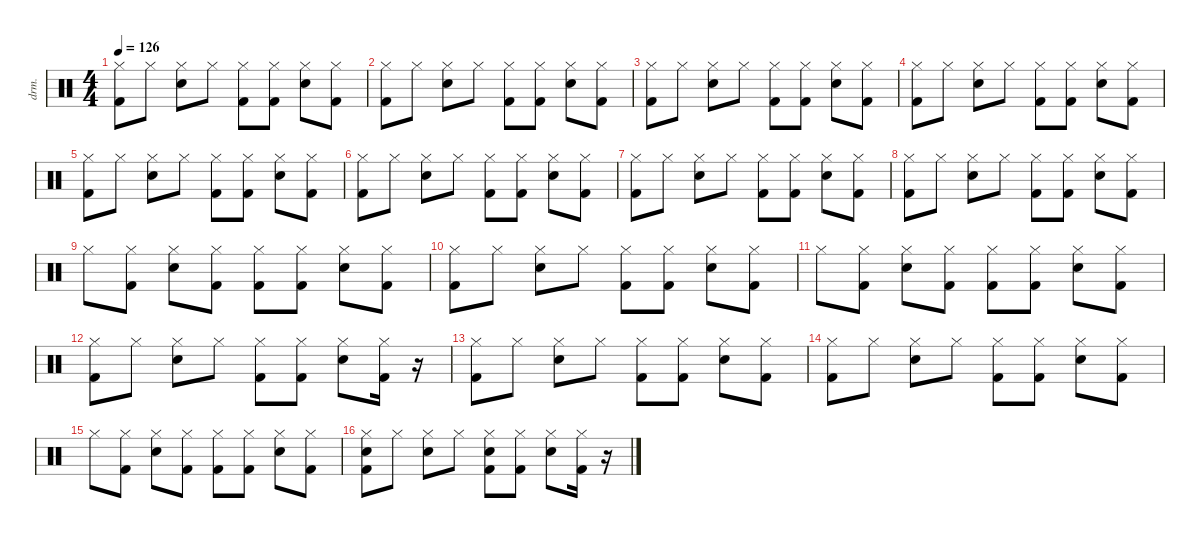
\defaultSystemsLayout 4
\hideDynamics
\bracketExtendMode nobrackets
\otherSystemsTrackNameOrientation horizontal
\track ("Drums" "drm.") {instrument percussion}
\staff {score}
\articulation defaults
\ts (4 4)
\tempo 126
\clef neutral
\ks c
("Kick (hit) 2" "Hi-Hat (closed)").8{dy f beam Down} "Hi-Hat (closed)".8{beam Down} ("Snare (hit) 2" "Hi-Hat (closed)").8{beam Down} "Hi-Hat (closed)".8{beam Down} ("Hi-Hat (closed)" "Kick (hit) 2").8{beam Down} ("Hi-Hat (closed)" "Kick (hit) 2").8{beam Down} ("Snare (hit) 2" "Hi-Hat (closed)").8{beam Down} ("Kick (hit) 2" "Hi-Hat (closed)").8{beam Down} |
("Kick (hit) 2" "Hi-Hat (closed)").8{beam Down} "Hi-Hat (closed)".8{beam Down} ("Snare (hit) 2" "Hi-Hat (closed)").8{beam Down} "Hi-Hat (closed)".8{beam Down} ("Hi-Hat (closed)" "Kick (hit) 2").8{beam Down} ("Hi-Hat (closed)" "Kick (hit) 2").8{beam Down} ("Snare (hit) 2" "Hi-Hat (closed)").8{beam Down} ("Kick (hit) 2" "Hi-Hat (closed)").8{beam Down} |
("Kick (hit) 2" "Hi-Hat (closed)").8{beam Down} "Hi-Hat (closed)".8{beam Down} ("Snare (hit) 2" "Hi-Hat (closed)").8{beam Down} "Hi-Hat (closed)".8{beam Down} ("Hi-Hat (closed)" "Kick (hit) 2").8{beam Down} ("Hi-Hat (closed)" "Kick (hit) 2").8{beam Down} ("Snare (hit) 2" "Hi-Hat (closed)").8{beam Down} ("Kick (hit) 2" "Hi-Hat (closed)").8{beam Down} |
("Kick (hit) 2" "Hi-Hat (closed)").8{beam Down} "Hi-Hat (closed)".8{beam Down} ("Snare (hit) 2" "Hi-Hat (closed)").8{beam Down} "Hi-Hat (closed)".8{beam Down} ("Hi-Hat (closed)" "Kick (hit) 2").8{beam Down} ("Hi-Hat (closed)" "Kick (hit) 2").8{beam Down} ("Snare (hit) 2" "Hi-Hat (closed)").8{beam Down} ("Kick (hit) 2" "Hi-Hat (closed)").8{beam Down} |
("Kick (hit) 2" "Hi-Hat (closed)").8{beam Down} "Hi-Hat (closed)".8{beam Down} ("Snare (hit) 2" "Hi-Hat (closed)").8{beam Down} "Hi-Hat (closed)".8{beam Down} ("Hi-Hat (closed)" "Kick (hit) 2").8{beam Down} ("Hi-Hat (closed)" "Kick (hit) 2").8{beam Down} ("Snare (hit) 2" "Hi-Hat (closed)").8{beam Down} ("Kick (hit) 2" "Hi-Hat (closed)").8{beam Down} |
("Kick (hit) 2" "Hi-Hat (closed)").8{beam Down} "Hi-Hat (closed)".8{beam Down} ("Snare (hit) 2" "Hi-Hat (closed)").8{beam Down} "Hi-Hat (closed)".8{beam Down} ("Hi-Hat (closed)" "Kick (hit) 2").8{beam Down} ("Hi-Hat (closed)" "Kick (hit) 2").8{beam Down} ("Snare (hit) 2" "Hi-Hat (closed)").8{beam Down} ("Kick (hit) 2" "Hi-Hat (closed)").8{beam Down} |
("Kick (hit) 2" "Hi-Hat (closed)").8{beam Down} "Hi-Hat (closed)".8{beam Down} ("Snare (hit) 2" "Hi-Hat (closed)").8{beam Down} "Hi-Hat (closed)".8{beam Down} ("Hi-Hat (closed)" "Kick (hit) 2").8{beam Down} ("Hi-Hat (closed)" "Kick (hit) 2").8{beam Down} ("Snare (hit) 2" "Hi-Hat (closed)").8{beam Down} ("Kick (hit) 2" "Hi-Hat (closed)").8{beam Down} |
("Kick (hit) 2" "Hi-Hat (closed)").8{beam Down} "Hi-Hat (closed)".8{beam Down} ("Snare (hit) 2" "Hi-Hat (closed)").8{beam Down} "Hi-Hat (closed)".8{beam Down} ("Hi-Hat (closed)" "Kick (hit) 2").8{beam Down} ("Hi-Hat (closed)" "Kick (hit) 2").8{beam Down} ("Snare (hit) 2" "Hi-Hat (closed)").8{beam Down} ("Kick (hit) 2" "Hi-Hat (closed)").8{beam Down} |
"Hi-Hat (closed)".8{beam Down} ("Hi-Hat (closed)" "Kick (hit) 2").8{beam Down} ("Snare (hit) 2" "Hi-Hat (closed)").8{beam Down} ("Kick (hit) 2" "Hi-Hat (closed)").8{beam Down} ("Hi-Hat (closed)" "Kick (hit) 2").8{beam Down} ("Hi-Hat (closed)" "Kick (hit) 2").8{beam Down} ("Snare (hit) 2" "Hi-Hat (closed)").8{beam Down} ("Kick (hit) 2" "Hi-Hat (closed)").8{beam Down} |
("Kick (hit) 2" "Hi-Hat (closed)").8{beam Down} "Hi-Hat (closed)".8{beam Down} ("Snare (hit) 2" "Hi-Hat (closed)").8{beam Down} "Hi-Hat (closed)".8{beam Down} ("Hi-Hat (closed)" "Kick (hit) 2").8{beam Down} ("Hi-Hat (closed)" "Kick (hit) 2").8{beam Down} ("Snare (hit) 2" "Hi-Hat (closed)").8{beam Down} ("Kick (hit) 2" "Hi-Hat (closed)").8{beam Down} |
"Hi-Hat (closed)".8{beam Down} ("Hi-Hat (closed)" "Kick (hit) 2").8{beam Down} ("Snare (hit) 2" "Hi-Hat (closed)").8{beam Down} ("Kick (hit) 2" "Hi-Hat (closed)").8{beam Down} ("Hi-Hat (closed)" "Kick (hit) 2").8{beam Down} ("Hi-Hat (closed)" "Kick (hit) 2").8{beam Down} ("Snare (hit) 2" "Hi-Hat (closed)").8{beam Down} ("Kick (hit) 2" "Hi-Hat (closed)").8{beam Down} |
("Kick (hit) 2" "Hi-Hat (closed)").8{beam Down} "Hi-Hat (closed)".8{beam Down} ("Snare (hit) 2" "Hi-Hat (closed)").8{beam Down} "Hi-Hat (closed)".8{beam Down} ("Hi-Hat (closed)" "Kick (hit) 2").8{beam Down} ("Hi-Hat (closed)" "Kick (hit) 2").8{beam Down} ("Snare (hit) 2" "Hi-Hat (closed)").8{beam Down} ("Kick (hit) 2" "Hi-Hat (closed)").16{beam Down} r.16{beam Down} |
("Kick (hit) 2" "Hi-Hat (closed)").8{beam Down} "Hi-Hat (closed)".8{beam Down} ("Snare (hit) 2" "Hi-Hat (closed)").8{beam Down} "Hi-Hat (closed)".8{beam Down} ("Hi-Hat (closed)" "Kick (hit) 2").8{beam Down} ("Hi-Hat (closed)" "Kick (hit) 2").8{beam Down} ("Snare (hit) 2" "Hi-Hat (closed)").8{beam Down} ("Kick (hit) 2" "Hi-Hat (closed)").8{beam Down} |
("Kick (hit) 2" "Hi-Hat (closed)").8{beam Down} "Hi-Hat (closed)".8{beam Down} ("Snare (hit) 2" "Hi-Hat (closed)").8{beam Down} "Hi-Hat (closed)".8{beam Down} ("Hi-Hat (closed)" "Kick (hit) 2").8{beam Down} ("Hi-Hat (closed)" "Kick (hit) 2").8{beam Down} ("Snare (hit) 2" "Hi-Hat (closed)").8{beam Down} ("Kick (hit) 2" "Hi-Hat (closed)").8{beam Down} |
"Hi-Hat (closed)".8{beam Down} ("Hi-Hat (closed)" "Kick (hit) 2").8{beam Down} ("Snare (hit) 2" "Hi-Hat (closed)").8{beam Down} ("Kick (hit) 2" "Hi-Hat (closed)").8{beam Down} ("Hi-Hat (closed)" "Kick (hit) 2").8{beam Down} ("Hi-Hat (closed)" "Kick (hit) 2").8{beam Down} ("Snare (hit) 2" "Hi-Hat (closed)").8{beam Down} ("Kick (hit) 2" "Hi-Hat (closed)").8{beam Down} |
("Snare (hit) 2" "Kick (hit) 2" "Hi-Hat (closed)").8{beam Down} "Hi-Hat (closed)".8{beam Down} ("Snare (hit) 2" "Hi-Hat (closed)").8{beam Down} "Hi-Hat (closed)".8{beam Down} ("Snare (hit) 2" "Hi-Hat (closed)" "Kick (hit) 2").8{beam Down} ("Hi-Hat (closed)" "Kick (hit) 2").8{beam Down} ("Snare (hit) 2" "Hi-Hat (closed)").8{beam Down} ("Kick (hit) 2" "Hi-Hat (closed)").16{beam Down} r.16{beam Down}
